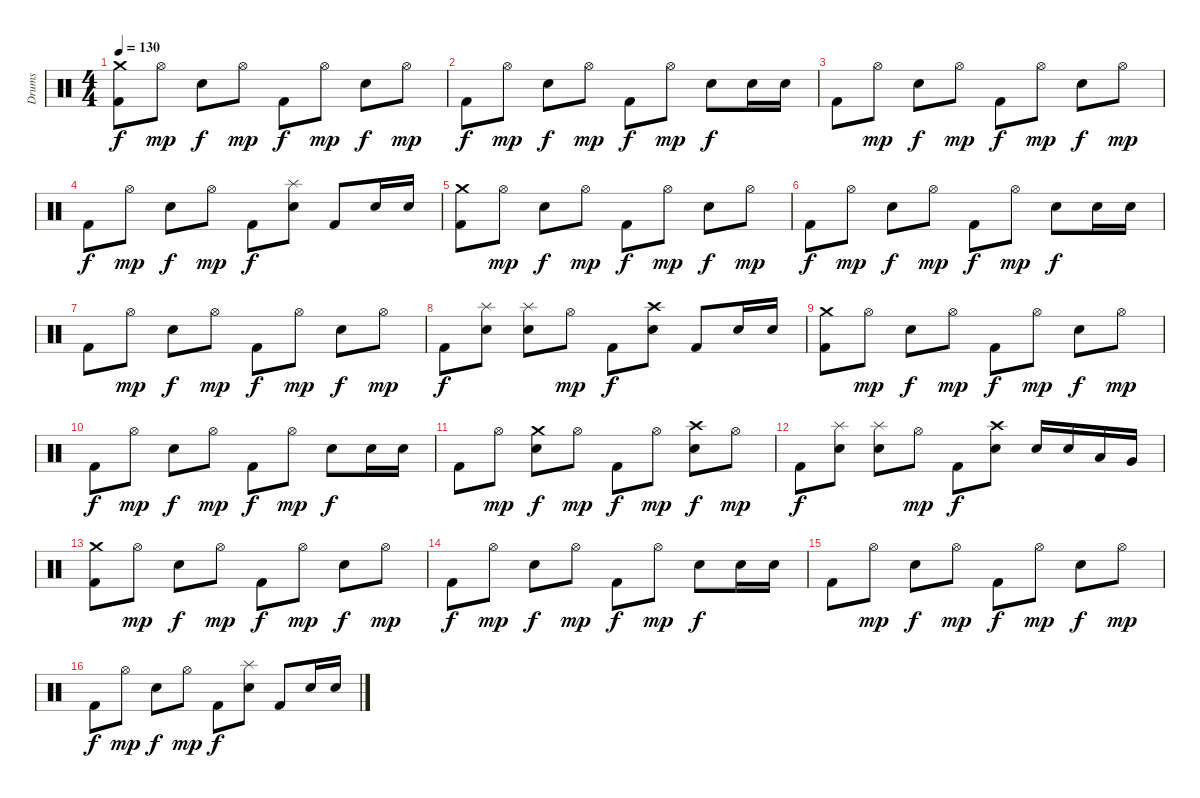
\track ("Drums" "Drums") {instrument percussion}
\staff {score}
\articulation defaults
\ts (4 4)
\tempo 130
\clef neutral
\ks c
("Crash medium (hit)" "Kick (hit) 2").8{dy f} "Hi-Hat (open)".8{dy mp} "Snare (hit) 2".8{dy f} "Hi-Hat (open)".8{dy mp} "Kick (hit) 2".8{dy f} "Hi-Hat (open)".8{dy mp} "Snare (hit) 2".8{dy f} "Hi-Hat (open)".8{dy mp} |
"Kick (hit) 2".8{dy f} "Hi-Hat (open)".8{dy mp} "Snare (hit) 2".8{dy f} "Hi-Hat (open)".8{dy mp} "Kick (hit) 2".8{dy f} "Hi-Hat (open)".8{dy mp} "Snare (hit) 2".8{dy f} "Snare (hit) 2".16 "Snare (hit) 2".16 |
"Kick (hit) 2".8 "Hi-Hat (open)".8{dy mp} "Snare (hit) 2".8{dy f} "Hi-Hat (open)".8{dy mp} "Kick (hit) 2".8{dy f} "Hi-Hat (open)".8{dy mp} "Snare (hit) 2".8{dy f} "Hi-Hat (open)".8{dy mp} |
"Kick (hit) 2".8{dy f} "Hi-Hat (open)".8{dy mp} "Snare (hit) 2".8{dy f} "Hi-Hat (open)".8{dy mp} "Kick (hit) 2".8{dy f} ("Splash (hit)" "Snare (hit) 2").8 "Kick (hit) 2".8 "Snare (hit) 2".16 "Snare (hit) 2".16 |
("Crash medium (hit)" "Kick (hit) 2").8 "Hi-Hat (open)".8{dy mp} "Snare (hit) 2".8{dy f} "Hi-Hat (open)".8{dy mp} "Kick (hit) 2".8{dy f} "Hi-Hat (open)".8{dy mp} "Snare (hit) 2".8{dy f} "Hi-Hat (open)".8{dy mp} |
"Kick (hit) 2".8{dy f} "Hi-Hat (open)".8{dy mp} "Snare (hit) 2".8{dy f} "Hi-Hat (open)".8{dy mp} "Kick (hit) 2".8{dy f} "Hi-Hat (open)".8{dy mp} "Snare (hit) 2".8{dy f} "Snare (hit) 2".16 "Snare (hit) 2".16 |
"Kick (hit) 2".8 "Hi-Hat (open)".8{dy mp} "Snare (hit) 2".8{dy f} "Hi-Hat (open)".8{dy mp} "Kick (hit) 2".8{dy f} "Hi-Hat (open)".8{dy mp} "Snare (hit) 2".8{dy f} "Hi-Hat (open)".8{dy mp} |
"Kick (hit) 2".8{dy f} ("Splash (hit)" "Snare (hit) 2").8 ("Splash (hit)" "Snare (hit) 2").8 "Hi-Hat (open)".8{dy mp} "Kick (hit) 2".8{dy f} ("Crash high (hit)" "Snare (hit) 2").8 "Kick (hit) 2".8 "Snare (hit) 2".16 "Snare (hit) 2".16 |
("Crash medium (hit)" "Kick (hit) 2").8 "Hi-Hat (open)".8{dy mp} "Snare (hit) 2".8{dy f} "Hi-Hat (open)".8{dy mp} "Kick (hit) 2".8{dy f} "Hi-Hat (open)".8{dy mp} "Snare (hit) 2".8{dy f} "Hi-Hat (open)".8{dy mp} |
"Kick (hit) 2".8{dy f} "Hi-Hat (open)".8{dy mp} "Snare (hit) 2".8{dy f} "Hi-Hat (open)".8{dy mp} "Kick (hit) 2".8{dy f} "Hi-Hat (open)".8{dy mp} "Snare (hit) 2".8{dy f} "Snare (hit) 2".16 "Snare (hit) 2".16 |
"Kick (hit) 2".8 "Hi-Hat (open)".8{dy mp} ("Crash medium (hit)" "Snare (hit) 2").8{dy f} "Hi-Hat (open)".8{dy mp} "Kick (hit) 2".8{dy f} "Hi-Hat (open)".8{dy mp} ("Crash high (hit)" "Snare (hit) 2").8{dy f} "Hi-Hat (open)".8{dy mp} |
"Kick (hit) 2".8{dy f} ("Splash (hit)" "Snare (hit) 2").8 ("Splash (hit)" "Snare (hit) 2").8 "Hi-Hat (open)".8{dy mp} "Kick (hit) 2".8{dy f} ("Crash high (hit)" "Snare (hit) 2").8 "Snare (hit) 2".16 "Snare (hit) 2".16 "Low Tom (hit)".16 "Very Low Tom (hit)".16 |
("Crash medium (hit)" "Kick (hit) 2").8 "Hi-Hat (open)".8{dy mp} "Snare (hit) 2".8{dy f} "Hi-Hat (open)".8{dy mp} "Kick (hit) 2".8{dy f} "Hi-Hat (open)".8{dy mp} "Snare (hit) 2".8{dy f} "Hi-Hat (open)".8{dy mp} |
"Kick (hit) 2".8{dy f} "Hi-Hat (open)".8{dy mp} "Snare (hit) 2".8{dy f} "Hi-Hat (open)".8{dy mp} "Kick (hit) 2".8{dy f} "Hi-Hat (open)".8{dy mp} "Snare (hit) 2".8{dy f} "Snare (hit) 2".16 "Snare (hit) 2".16 |
"Kick (hit) 2".8 "Hi-Hat (open)".8{dy mp} "Snare (hit) 2".8{dy f} "Hi-Hat (open)".8{dy mp} "Kick (hit) 2".8{dy f} "Hi-Hat (open)".8{dy mp} "Snare (hit) 2".8{dy f} "Hi-Hat (open)".8{dy mp} |
"Kick (hit) 2".8{dy f} "Hi-Hat (open)".8{dy mp} "Snare (hit) 2".8{dy f} "Hi-Hat (open)".8{dy mp} "Kick (hit) 2".8{dy f} ("Splash (hit)" "Snare (hit) 2").8 "Kick (hit) 2".8 "Snare (hit) 2".16 "Snare (hit) 2".16
